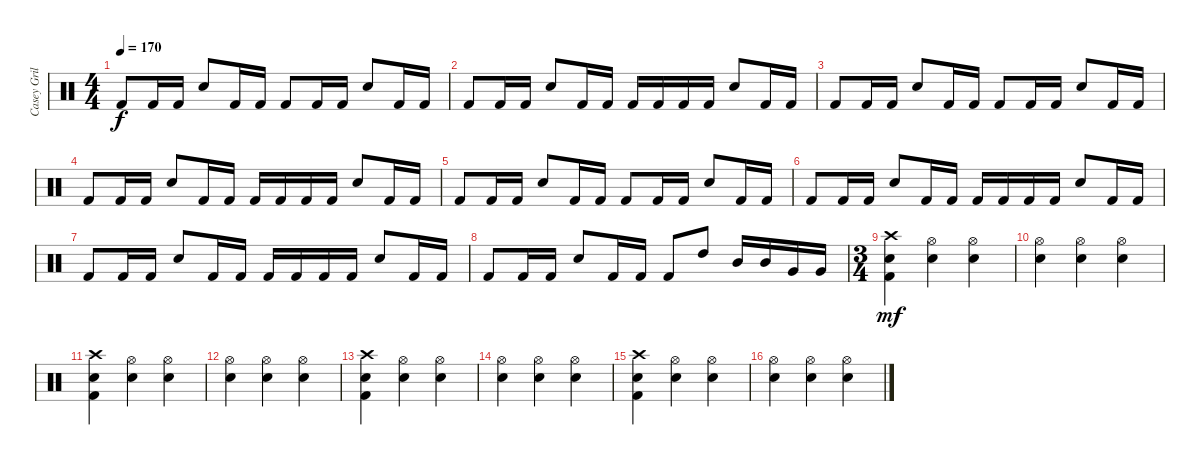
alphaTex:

\track ("Casey Grillo" "Casey Gril") {instrument percussion}
\staff {score}
\articulation defaults
\ts (4 4)
\tempo 170
\clef neutral
\ks c "Kick (hit) 2".8{dy f} "Kick (hit) 2".16 "Kick (hit) 2".16 "Snare (hit) 2".8 "Kick (hit) 2".16 "Kick (hit) 2".16 "Kick (hit) 2".8 "Kick (hit) 2".16 "Kick (hit) 2".16 "Snare (hit) 2".8 "Kick (hit) 2".16 "Kick (hit) 2".16
|
"Kick (hit) 2".8 "Kick (hit) 2".16 "Kick (hit) 2".16 "Snare (hit) 2".8 "Kick (hit) 2".16 "Kick (hit) 2".16 "Kick (hit) 2".16 "Kick (hit) 2".16 "Kick (hit) 2".16 "Kick (hit) 2".16 "Snare (hit) 2".8 "Kick (hit) 2".16 "Kick (hit) 2".16 |
"Kick (hit) 2".8 "Kick (hit) 2".16 "Kick (hit) 2".16 "Snare (hit) 2".8 "Kick (hit) 2".16 "Kick (hit) 2".16 "Kick (hit) 2".8 "Kick (hit) 2".16 "Kick (hit) 2".16 "Snare (hit) 2".8 "Kick (hit) 2".16 "Kick (hit) 2".16 |
"Kick (hit) 2".8 "Kick (hit) 2".16 "Kick (hit) 2".16 "Snare (hit) 2".8 "Kick (hit) 2".16 "Kick (hit) 2".16 "Kick (hit) 2".16 "Kick (hit) 2".16 "Kick (hit) 2".16 "Kick (hit) 2".16 "Snare (hit) 2".8 "Kick (hit) 2".16 "Kick (hit) 2".16 |
"Kick (hit) 2".8 "Kick (hit) 2".16 "Kick (hit) 2".16 "Snare (hit) 2".8 "Kick (hit) 2".16 "Kick (hit) 2".16 "Kick (hit) 2".8 "Kick (hit) 2".16 "Kick (hit) 2".16 "Snare (hit) 2".8 "Kick (hit) 2".16 "Kick (hit) 2".16 |
"Kick (hit) 2".8 "Kick (hit) 2".16 "Kick (hit) 2".16 "Snare (hit) 2".8 "Kick (hit) 2".16 "Kick (hit) 2".16 "Kick (hit) 2".16 "Kick (hit) 2".16 "Kick (hit) 2".16 "Kick (hit) 2".16 "Snare (hit) 2".8 "Kick (hit) 2".16 "Kick (hit) 2".16 |
"Kick (hit) 2".8 "Kick (hit) 2".16 "Kick (hit) 2".16 "Snare (hit) 2".8 "Kick (hit) 2".16 "Kick (hit) 2".16 "Kick (hit) 2".16 "Kick (hit) 2".16 "Kick (hit) 2".16 "Kick (hit) 2".16 "Snare (hit) 2".8 "Kick (hit) 2".16 "Kick (hit) 2".16 |
"Kick (hit) 2".8 "Kick (hit) 2".16 "Kick (hit) 2".16 "Snare (hit) 2".8 "Kick (hit) 2".16 "Kick (hit) 2".16 "Kick (hit) 2".8 "High Tom (hit)".8 "Mid Tom (hit)".16 "Mid Tom (hit)".16 "Very Low Tom (hit)".16 "Very Low Tom (hit)".16 |
\ts (3 4)
("Snare (hit) 2" "Kick (hit) 2" "Crash high (hit)").4{dy mf} ("Snare (hit) 2" "Hi-Hat (open)").4 ("Snare (hit) 2" "Hi-Hat (open)").4 |
("Snare (hit) 2" "Hi-Hat (open)").4 ("Snare (hit) 2" "Hi-Hat (open)").4 ("Snare (hit) 2" "Hi-Hat (open)").4 |
("Snare (hit) 2" "Kick (hit) 2" "Crash high (hit)").4 ("Snare (hit) 2" "Hi-Hat (open)").4 ("Snare (hit) 2" "Hi-Hat (open)").4 |
("Snare (hit) 2" "Hi-Hat (open)").4 ("Snare (hit) 2" "Hi-Hat (open)").4 ("Snare (hit) 2" "Hi-Hat (open)").4 |
("Snare (hit) 2" "Kick (hit) 2" "Crash high (hit)").4 ("Snare (hit) 2" "Hi-Hat (open)").4 ("Snare (hit) 2" "Hi-Hat (open)").4 |
("Snare (hit) 2" "Hi-Hat (open)").4 ("Snare (hit) 2" "Hi-Hat (open)").4 ("Snare (hit) 2" "Hi-Hat (open)").4 |
("Snare (hit) 2" "Kick (hit) 2" "Crash high (hit)").4 ("Snare (hit) 2" "Hi-Hat (open)").4 ("Snare (hit) 2" "Hi-Hat (open)").4 |
("Snare (hit) 2" "Hi-Hat (open)").4 ("Snare (hit) 2" "Hi-Hat (open)").4 ("Snare (hit) 2" "Hi-Hat (open)").4
